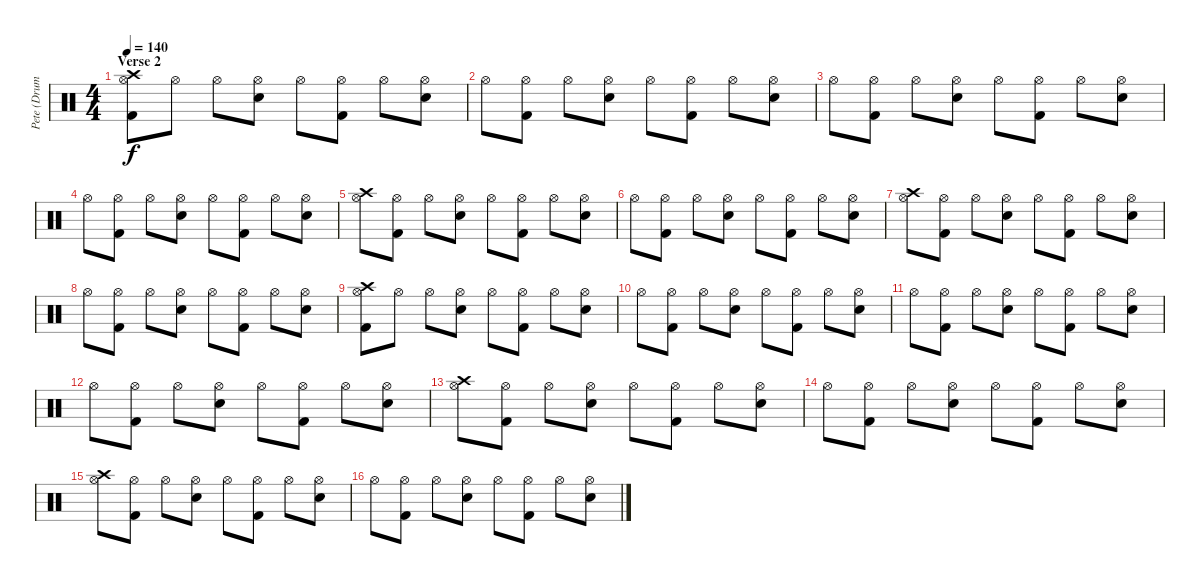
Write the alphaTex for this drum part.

\track ("Pete (Drums)" "Pete (Drum") {instrument percussion}
\staff {score}
\articulation defaults
\ts (4 4)
\section ("" "Verse 2")
\tempo 140
\clef neutral
\ks c
("Hi-Hat (open)" "Kick (hit) 2" "Crash high (hit)").8{dy f} "Hi-Hat (open)".8 "Hi-Hat (open)".8 ("Hi-Hat (open)" "Snare (hit) 2").8 "Hi-Hat (open)".8 ("Hi-Hat (open)" "Kick (hit) 2").8 "Hi-Hat (open)".8 ("Hi-Hat (open)" "Snare (hit) 2").8 |
"Hi-Hat (open)".8 ("Hi-Hat (open)" "Kick (hit) 2").8 "Hi-Hat (open)".8 ("Hi-Hat (open)" "Snare (hit) 2").8 "Hi-Hat (open)".8 ("Hi-Hat (open)" "Kick (hit) 2").8 "Hi-Hat (open)".8 ("Hi-Hat (open)" "Snare (hit) 2").8 |
"Hi-Hat (open)".8 ("Hi-Hat (open)" "Kick (hit) 2").8 "Hi-Hat (open)".8 ("Hi-Hat (open)" "Snare (hit) 2").8 "Hi-Hat (open)".8 ("Hi-Hat (open)" "Kick (hit) 2").8 "Hi-Hat (open)".8 ("Hi-Hat (open)" "Snare (hit) 2").8 |
"Hi-Hat (open)".8 ("Hi-Hat (open)" "Kick (hit) 2").8 "Hi-Hat (open)".8 ("Hi-Hat (open)" "Snare (hit) 2").8 "Hi-Hat (open)".8 ("Hi-Hat (open)" "Kick (hit) 2").8 "Hi-Hat (open)".8 ("Hi-Hat (open)" "Snare (hit) 2").8 |
("Hi-Hat (open)" "Crash high (hit)").8 ("Hi-Hat (open)" "Kick (hit) 2").8 "Hi-Hat (open)".8 ("Hi-Hat (open)" "Snare (hit) 2").8 "Hi-Hat (open)".8 ("Hi-Hat (open)" "Kick (hit) 2").8 "Hi-Hat (open)".8 ("Hi-Hat (open)" "Snare (hit) 2").8 |
"Hi-Hat (open)".8 ("Hi-Hat (open)" "Kick (hit) 2").8 "Hi-Hat (open)".8 ("Hi-Hat (open)" "Snare (hit) 2").8 "Hi-Hat (open)".8 ("Hi-Hat (open)" "Kick (hit) 2").8 "Hi-Hat (open)".8 ("Hi-Hat (open)" "Snare (hit) 2").8 |
("Hi-Hat (open)" "Crash high (hit)").8 ("Hi-Hat (open)" "Kick (hit) 2").8 "Hi-Hat (open)".8 ("Hi-Hat (open)" "Snare (hit) 2").8 "Hi-Hat (open)".8 ("Hi-Hat (open)" "Kick (hit) 2").8 "Hi-Hat (open)".8 ("Hi-Hat (open)" "Snare (hit) 2").8 |
"Hi-Hat (open)".8 ("Hi-Hat (open)" "Kick (hit) 2").8 "Hi-Hat (open)".8 ("Hi-Hat (open)" "Snare (hit) 2").8 "Hi-Hat (open)".8 ("Hi-Hat (open)" "Kick (hit) 2").8 "Hi-Hat (open)".8 ("Hi-Hat (open)" "Snare (hit) 2").8 |
("Hi-Hat (open)" "Kick (hit) 2" "Crash high (hit)").8 "Hi-Hat (open)".8 "Hi-Hat (open)".8 ("Hi-Hat (open)" "Snare (hit) 2").8 "Hi-Hat (open)".8 ("Hi-Hat (open)" "Kick (hit) 2").8 "Hi-Hat (open)".8 ("Hi-Hat (open)" "Snare (hit) 2").8 |
"Hi-Hat (open)".8 ("Hi-Hat (open)" "Kick (hit) 2").8 "Hi-Hat (open)".8 ("Hi-Hat (open)" "Snare (hit) 2").8 "Hi-Hat (open)".8 ("Hi-Hat (open)" "Kick (hit) 2").8 "Hi-Hat (open)".8 ("Hi-Hat (open)" "Snare (hit) 2").8 |
"Hi-Hat (open)".8 ("Hi-Hat (open)" "Kick (hit) 2").8 "Hi-Hat (open)".8 ("Hi-Hat (open)" "Snare (hit) 2").8 "Hi-Hat (open)".8 ("Hi-Hat (open)" "Kick (hit) 2").8 "Hi-Hat (open)".8 ("Hi-Hat (open)" "Snare (hit) 2").8 |
"Hi-Hat (open)".8 ("Hi-Hat (open)" "Kick (hit) 2").8 "Hi-Hat (open)".8 ("Hi-Hat (open)" "Snare (hit) 2").8 "Hi-Hat (open)".8 ("Hi-Hat (open)" "Kick (hit) 2").8 "Hi-Hat (open)".8 ("Hi-Hat (open)" "Snare (hit) 2").8 |
("Hi-Hat (open)" "Crash high (hit)").8 ("Hi-Hat (open)" "Kick (hit) 2").8 "Hi-Hat (open)".8 ("Hi-Hat (open)" "Snare (hit) 2").8 "Hi-Hat (open)".8 ("Hi-Hat (open)" "Kick (hit) 2").8 "Hi-Hat (open)".8 ("Hi-Hat (open)" "Snare (hit) 2").8 |
"Hi-Hat (open)".8 ("Hi-Hat (open)" "Kick (hit) 2").8 "Hi-Hat (open)".8 ("Hi-Hat (open)" "Snare (hit) 2").8 "Hi-Hat (open)".8 ("Hi-Hat (open)" "Kick (hit) 2").8 "Hi-Hat (open)".8 ("Hi-Hat (open)" "Snare (hit) 2").8 |
("Hi-Hat (open)" "Crash high (hit)").8 ("Hi-Hat (open)" "Kick (hit) 2").8 "Hi-Hat (open)".8 ("Hi-Hat (open)" "Snare (hit) 2").8 "Hi-Hat (open)".8 ("Hi-Hat (open)" "Kick (hit) 2").8 "Hi-Hat (open)".8 ("Hi-Hat (open)" "Snare (hit) 2").8 |
"Hi-Hat (open)".8 ("Hi-Hat (open)" "Kick (hit) 2").8 "Hi-Hat (open)".8 ("Hi-Hat (open)" "Snare (hit) 2").8 "Hi-Hat (open)".8 ("Hi-Hat (open)" "Kick (hit) 2").8 "Hi-Hat (open)".8 ("Hi-Hat (open)" "Snare (hit) 2").8
